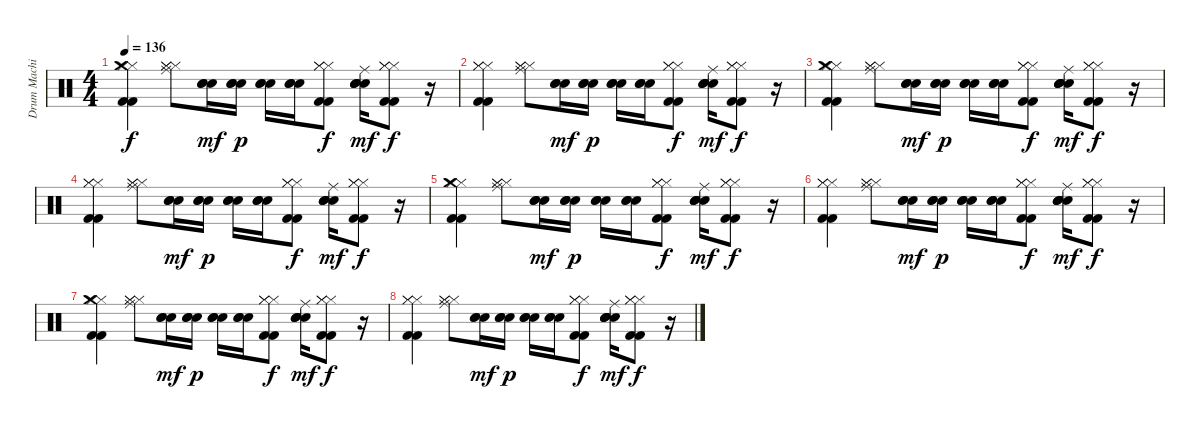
\track ("Drum Machine" "Drum Machi") {instrument percussion}
\staff {score}
\articulation defaults
\ts (4 4)
\tempo 136
\clef neutral
\ks c
("Hi-Hat (closed)" "Kick (hit) 2" "Crash medium (hit)" "Kick (hit) 2" "Hi-Hat (closed)").4{dy f} ("Ride (middle)" "Hi-Hat (closed)" "Hi-Hat (closed)" "Hi-Hat (closed)").8 ("Electric Snare (hit)" "Electric Snare (hit)" "Electric Snare (hit)").16{dy mf} ("Snare (hit) 2" "Snare (hit) 2" "Snare (hit) 2").16{dy p} ("Electric Snare (hit)" "Electric Snare (hit)" "Electric Snare (hit)").16 ("Snare (hit) 2" "Snare (hit) 2" "Snare (hit) 2").16 ("Hi-Hat (closed)" "Kick (hit) 2" "Hi-Hat (closed)" "Kick (hit) 2" "Hi-Hat (closed)").8{dy f} ("Ride (middle)" "Electric Snare (hit)" "Snare (hit) 2" "Electric Snare (hit)" "Snare (hit) 2").16{dy mf} ("Hi-Hat (closed)" "Kick (hit) 2" "Hi-Hat (closed)" "Kick (hit) 2" "Hi-Hat (closed)").8{dy f} r.16 |
("Hi-Hat (closed)" "Kick (hit) 2" "Hi-Hat (closed)" "Kick (hit) 2" "Hi-Hat (closed)").4 ("Ride (middle)" "Hi-Hat (closed)" "Hi-Hat (closed)" "Hi-Hat (closed)").8 ("Electric Snare (hit)" "Electric Snare (hit)" "Electric Snare (hit)").16{dy mf} ("Snare (hit) 2" "Snare (hit) 2" "Snare (hit) 2").16{dy p} ("Electric Snare (hit)" "Electric Snare (hit)" "Electric Snare (hit)").16 ("Snare (hit) 2" "Snare (hit) 2" "Snare (hit) 2").16 ("Hi-Hat (closed)" "Kick (hit) 2" "Hi-Hat (closed)" "Kick (hit) 2" "Hi-Hat (closed)").8{dy f} ("Ride (middle)" "Electric Snare (hit)" "Snare (hit) 2" "Electric Snare (hit)" "Snare (hit) 2").16{dy mf} ("Hi-Hat (closed)" "Kick (hit) 2" "Hi-Hat (closed)" "Kick (hit) 2" "Hi-Hat (closed)").8{dy f} r.16 |
("Hi-Hat (closed)" "Kick (hit) 2" "Crash medium (hit)" "Kick (hit) 2" "Hi-Hat (closed)").4 ("Ride (middle)" "Hi-Hat (closed)" "Hi-Hat (closed)" "Hi-Hat (closed)").8 ("Electric Snare (hit)" "Electric Snare (hit)" "Electric Snare (hit)").16{dy mf} ("Snare (hit) 2" "Snare (hit) 2" "Snare (hit) 2").16{dy p} ("Electric Snare (hit)" "Electric Snare (hit)" "Electric Snare (hit)").16 ("Snare (hit) 2" "Snare (hit) 2" "Snare (hit) 2").16 ("Hi-Hat (closed)" "Kick (hit) 2" "Hi-Hat (closed)" "Kick (hit) 2" "Hi-Hat (closed)").8{dy f} ("Ride (middle)" "Electric Snare (hit)" "Snare (hit) 2" "Electric Snare (hit)" "Snare (hit) 2").16{dy mf} ("Hi-Hat (closed)" "Kick (hit) 2" "Hi-Hat (closed)" "Kick (hit) 2" "Hi-Hat (closed)").8{dy f} r.16 |
("Hi-Hat (closed)" "Kick (hit) 2" "Hi-Hat (closed)" "Kick (hit) 2" "Hi-Hat (closed)").4 ("Ride (middle)" "Hi-Hat (closed)" "Hi-Hat (closed)" "Hi-Hat (closed)").8 ("Electric Snare (hit)" "Electric Snare (hit)" "Electric Snare (hit)").16{dy mf} ("Snare (hit) 2" "Snare (hit) 2" "Snare (hit) 2").16{dy p} ("Electric Snare (hit)" "Electric Snare (hit)" "Electric Snare (hit)").16 ("Snare (hit) 2" "Snare (hit) 2" "Snare (hit) 2").16 ("Hi-Hat (closed)" "Kick (hit) 2" "Hi-Hat (closed)" "Kick (hit) 2" "Hi-Hat (closed)").8{dy f} ("Ride (middle)" "Electric Snare (hit)" "Snare (hit) 2" "Electric Snare (hit)" "Snare (hit) 2").16{dy mf} ("Hi-Hat (closed)" "Kick (hit) 2" "Hi-Hat (closed)" "Kick (hit) 2" "Hi-Hat (closed)").8{dy f} r.16 |
("Hi-Hat (closed)" "Kick (hit) 2" "Crash medium (hit)" "Kick (hit) 2" "Hi-Hat (closed)").4 ("Ride (middle)" "Hi-Hat (closed)" "Hi-Hat (closed)" "Hi-Hat (closed)").8 ("Electric Snare (hit)" "Electric Snare (hit)" "Electric Snare (hit)").16{dy mf} ("Snare (hit) 2" "Snare (hit) 2" "Snare (hit) 2").16{dy p} ("Electric Snare (hit)" "Electric Snare (hit)" "Electric Snare (hit)").16 ("Snare (hit) 2" "Snare (hit) 2" "Snare (hit) 2").16 ("Hi-Hat (closed)" "Kick (hit) 2" "Hi-Hat (closed)" "Kick (hit) 2" "Hi-Hat (closed)").8{dy f} ("Ride (middle)" "Electric Snare (hit)" "Snare (hit) 2" "Electric Snare (hit)" "Snare (hit) 2").16{dy mf} ("Hi-Hat (closed)" "Kick (hit) 2" "Hi-Hat (closed)" "Kick (hit) 2" "Hi-Hat (closed)").8{dy f} r.16 |
("Hi-Hat (closed)" "Kick (hit) 2" "Hi-Hat (closed)" "Kick (hit) 2" "Hi-Hat (closed)").4 ("Ride (middle)" "Hi-Hat (closed)" "Hi-Hat (closed)" "Hi-Hat (closed)").8 ("Electric Snare (hit)" "Electric Snare (hit)" "Electric Snare (hit)").16{dy mf} ("Snare (hit) 2" "Snare (hit) 2" "Snare (hit) 2").16{dy p} ("Electric Snare (hit)" "Electric Snare (hit)" "Electric Snare (hit)").16 ("Snare (hit) 2" "Snare (hit) 2" "Snare (hit) 2").16 ("Hi-Hat (closed)" "Kick (hit) 2" "Hi-Hat (closed)" "Kick (hit) 2" "Hi-Hat (closed)").8{dy f} ("Ride (middle)" "Electric Snare (hit)" "Snare (hit) 2" "Electric Snare (hit)" "Snare (hit) 2").16{dy mf} ("Hi-Hat (closed)" "Kick (hit) 2" "Hi-Hat (closed)" "Kick (hit) 2" "Hi-Hat (closed)").8{dy f} r.16 |
("Hi-Hat (closed)" "Kick (hit) 2" "Crash medium (hit)" "Kick (hit) 2" "Hi-Hat (closed)").4 ("Ride (middle)" "Hi-Hat (closed)" "Hi-Hat (closed)" "Hi-Hat (closed)").8 ("Electric Snare (hit)" "Electric Snare (hit)" "Electric Snare (hit)").16{dy mf} ("Snare (hit) 2" "Snare (hit) 2" "Snare (hit) 2").16{dy p} ("Electric Snare (hit)" "Electric Snare (hit)" "Electric Snare (hit)").16 ("Snare (hit) 2" "Snare (hit) 2" "Snare (hit) 2").16 ("Hi-Hat (closed)" "Kick (hit) 2" "Hi-Hat (closed)" "Kick (hit) 2" "Hi-Hat (closed)").8{dy f} ("Ride (middle)" "Electric Snare (hit)" "Snare (hit) 2" "Electric Snare (hit)" "Snare (hit) 2").16{dy mf} ("Hi-Hat (closed)" "Kick (hit) 2" "Hi-Hat (closed)" "Kick (hit) 2" "Hi-Hat (closed)").8{dy f} r.16 |
("Hi-Hat (closed)" "Kick (hit) 2" "Hi-Hat (closed)" "Kick (hit) 2" "Hi-Hat (closed)").4 ("Ride (middle)" "Hi-Hat (closed)" "Hi-Hat (closed)" "Hi-Hat (closed)").8 ("Electric Snare (hit)" "Electric Snare (hit)" "Electric Snare (hit)").16{dy mf} ("Snare (hit) 2" "Snare (hit) 2" "Snare (hit) 2").16{dy p} ("Electric Snare (hit)" "Electric Snare (hit)" "Electric Snare (hit)").16 ("Snare (hit) 2" "Snare (hit) 2" "Snare (hit) 2").16 ("Hi-Hat (closed)" "Kick (hit) 2" "Hi-Hat (closed)" "Kick (hit) 2" "Hi-Hat (closed)").8{dy f} ("Ride (middle)" "Electric Snare (hit)" "Snare (hit) 2" "Electric Snare (hit)" "Snare (hit) 2").16{dy mf} ("Hi-Hat (closed)" "Kick (hit) 2" "Hi-Hat (closed)" "Kick (hit) 2" "Hi-Hat (closed)").8{dy f} r.16
